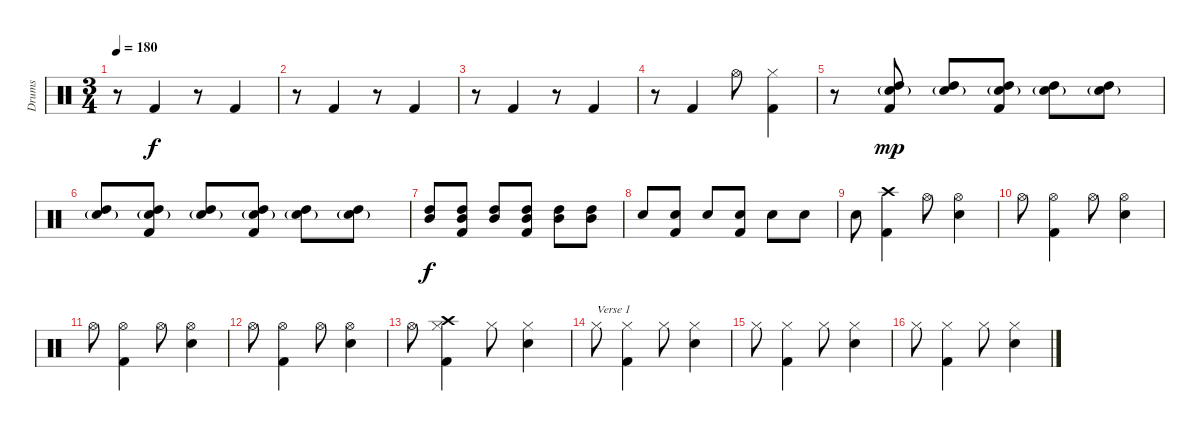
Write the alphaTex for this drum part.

\track ("Drums" "Drums") {instrument percussion}
\staff {score}
\articulation defaults
\ts (3 4)
\tempo 180
\clef neutral
\ks c
r.8{dy f} "Kick (hit) 2".4 r.8 "Kick (hit) 2".4 |
r.8 "Kick (hit) 2".4 r.8 "Kick (hit) 2".4 |
r.8 "Kick (hit) 2".4 r.8 "Kick (hit) 2".4 |
r.8 "Kick (hit) 2".4 "Hi-Hat (open)".8 ("Hi-Hat (closed)" "Kick (hit) 2").4 |
r.8 ("High Tom (hit)" "Snare (hit) 2"{g} "Kick (hit) 2").8{dy mp} ("High Tom (hit)" "Snare (hit) 2"{g}).8 ("High Tom (hit)" "Snare (hit) 2"{g} "Kick (hit) 2").8 ("High Tom (hit)" "Snare (hit) 2"{g}).8 ("High Tom (hit)" "Snare (hit) 2"{g}).8 |
("High Tom (hit)" "Snare (hit) 2"{g}).8 ("High Tom (hit)" "Snare (hit) 2"{g} "Kick (hit) 2").8 ("High Tom (hit)" "Snare (hit) 2"{g}).8 ("High Tom (hit)" "Snare (hit) 2"{g} "Kick (hit) 2").8 ("High Tom (hit)" "Snare (hit) 2"{g}).8 ("High Tom (hit)" "Snare (hit) 2"{g}).8 |
("Mid Tom (hit)" "High Tom (hit)").8{dy f} ("Mid Tom (hit)" "High Tom (hit)" "Kick (hit) 2").8 ("Mid Tom (hit)" "High Tom (hit)").8 ("Mid Tom (hit)" "High Tom (hit)" "Kick (hit) 2").8 ("Mid Tom (hit)" "High Tom (hit)").8 ("Mid Tom (hit)" "High Tom (hit)").8 |
"Snare (hit) 2".8 ("Snare (hit) 2" "Kick (hit) 2").8 "Snare (hit) 2".8 ("Snare (hit) 2" "Kick (hit) 2").8 "Snare (hit) 2".8 "Snare (hit) 2".8 |
"Snare (hit) 2".8 ("Crash high (hit)" "Kick (hit) 2").4 "Hi-Hat (open)".8 ("Hi-Hat (open)" "Snare (hit) 2").4 |
"Hi-Hat (open)".8 ("Hi-Hat (open)" "Kick (hit) 2").4 "Hi-Hat (open)".8 ("Hi-Hat (open)" "Snare (hit) 2").4 |
"Hi-Hat (open)".8 ("Hi-Hat (open)" "Kick (hit) 2").4 "Hi-Hat (open)".8 ("Hi-Hat (open)" "Snare (hit) 2").4 |
"Hi-Hat (open)".8 ("Hi-Hat (open)" "Kick (hit) 2").4 "Hi-Hat (open)".8 ("Hi-Hat (open)" "Snare (hit) 2").4 |
"Hi-Hat (open)".8 ("Crash high (hit)" "Hi-Hat (closed)" "Kick (hit) 2").4 "Hi-Hat (closed)".8 ("Hi-Hat (closed)" "Snare (hit) 2").4 |
"Hi-Hat (closed)".8{txt "Verse 1"} ("Hi-Hat (closed)" "Kick (hit) 2").4 "Hi-Hat (closed)".8 ("Hi-Hat (closed)" "Snare (hit) 2").4 |
"Hi-Hat (closed)".8 ("Hi-Hat (closed)" "Kick (hit) 2").4 "Hi-Hat (closed)".8 ("Hi-Hat (closed)" "Snare (hit) 2").4 |
"Hi-Hat (closed)".8 ("Hi-Hat (closed)" "Kick (hit) 2").4 "Hi-Hat (closed)".8 ("Hi-Hat (closed)" "Snare (hit) 2").4
